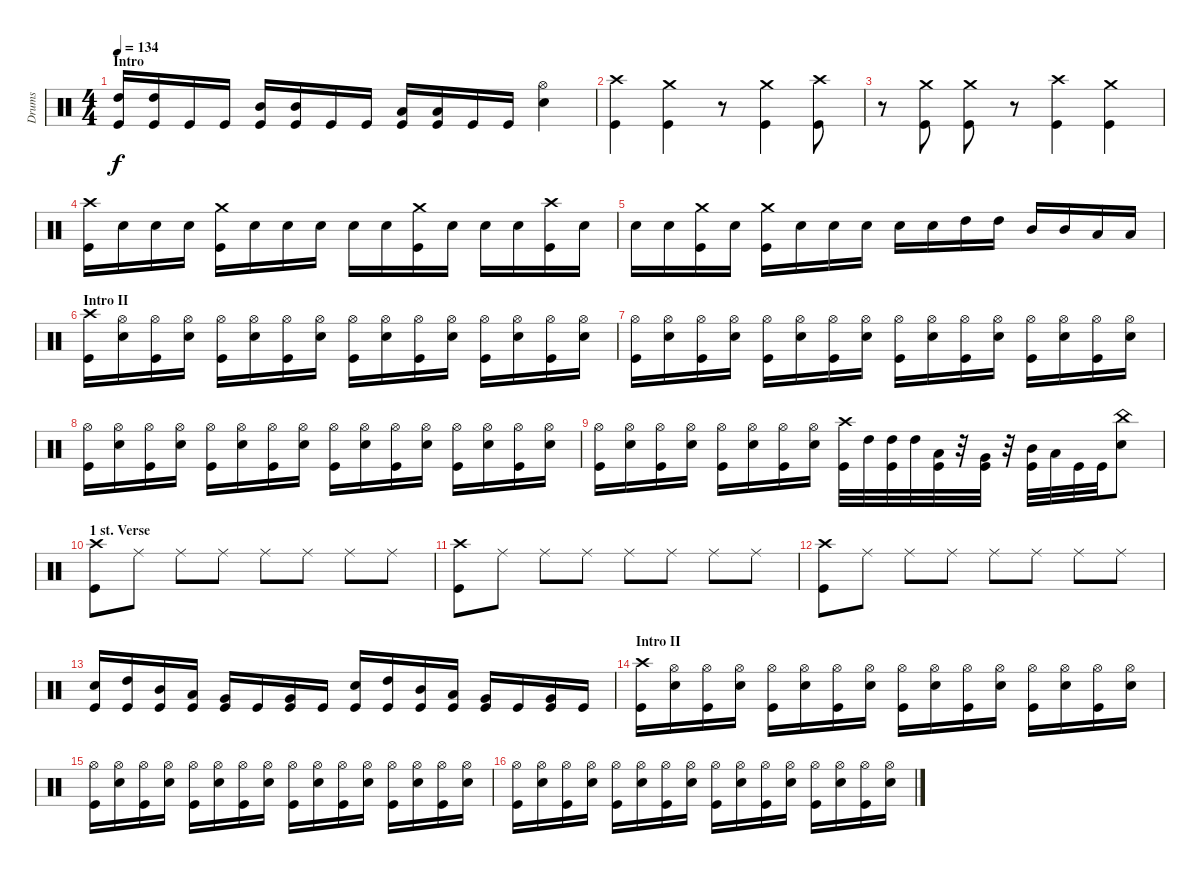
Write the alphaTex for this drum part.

\track ("Drums" "Drums") {instrument percussion}
\staff {score}
\articulation defaults
\ts (4 4)
\section ("" "Intro")
\tempo 134
\clef neutral
\ks c
("High Tom (hit)" "Kick (hit)").16{dy f} ("High Tom (hit)" "Kick (hit)").16 "Kick (hit)".16 "Kick (hit)".16 ("Mid Tom (hit)" "Kick (hit)").16 ("Mid Tom (hit)" "Kick (hit)").16 "Kick (hit)".16 "Kick (hit)".16 ("Low Tom (hit)" "Kick (hit)").16 ("Low Tom (hit)" "Kick (hit)").16 "Kick (hit)".16 "Kick (hit)".16 ("Hi-Hat (open)" "Electric Snare (hit)").4 |
("Crash high (hit)" "Kick (hit)").4 ("Crash medium (hit)" "Kick (hit)").4 r.8 ("Crash medium (hit)" "Kick (hit)").4 ("Crash high (hit)" "Kick (hit)").8 |
r.8 ("Crash medium (hit)" "Kick (hit)").8 ("Crash medium (hit)" "Kick (hit)").8 r.8 ("Crash high (hit)" "Kick (hit)").4 ("Crash medium (hit)" "Kick (hit)").4 |
("Crash high (hit)" "Kick (hit)").16 "Electric Snare (hit)".16 "Electric Snare (hit)".16 "Electric Snare (hit)".16 ("Crash medium (hit)" "Kick (hit)").16 "Electric Snare (hit)".16 "Electric Snare (hit)".16 "Electric Snare (hit)".16 "Electric Snare (hit)".16 "Electric Snare (hit)".16 ("Crash medium (hit)" "Kick (hit)").16 "Electric Snare (hit)".16 "Electric Snare (hit)".16 "Electric Snare (hit)".16 ("Crash high (hit)" "Kick (hit)").16 "Electric Snare (hit)".16 |
"Electric Snare (hit)".16 "Electric Snare (hit)".16 ("Crash medium (hit)" "Kick (hit)").16 "Electric Snare (hit)".16 ("Crash medium (hit)" "Kick (hit)").16 "Electric Snare (hit)".16 "Electric Snare (hit)".16 "Electric Snare (hit)".16 "Electric Snare (hit)".16 "Electric Snare (hit)".16 "High Tom (hit)".16 "High Tom (hit)".16 "Mid Tom (hit)".16 "Mid Tom (hit)".16 "Low Tom (hit)".16 "Low Tom (hit)".16 |
\section ("" "Intro II")
("Crash high (hit)" "Kick (hit)").16 ("Hi-Hat (open)" "Electric Snare (hit)").16 ("Hi-Hat (open)" "Kick (hit)").16 ("Hi-Hat (open)" "Electric Snare (hit)").16 ("Hi-Hat (open)" "Kick (hit)").16 ("Hi-Hat (open)" "Electric Snare (hit)").16 ("Hi-Hat (open)" "Kick (hit)").16 ("Hi-Hat (open)" "Electric Snare (hit)").16 ("Hi-Hat (open)" "Kick (hit)").16 ("Hi-Hat (open)" "Electric Snare (hit)").16 ("Hi-Hat (open)" "Kick (hit)").16 ("Hi-Hat (open)" "Electric Snare (hit)").16 ("Hi-Hat (open)" "Kick (hit)").16 ("Hi-Hat (open)" "Electric Snare (hit)").16 ("Hi-Hat (open)" "Kick (hit)").16 ("Hi-Hat (open)" "Electric Snare (hit)").16 |
("Hi-Hat (open)" "Kick (hit)").16 ("Hi-Hat (open)" "Electric Snare (hit)").16 ("Hi-Hat (open)" "Kick (hit)").16 ("Hi-Hat (open)" "Electric Snare (hit)").16 ("Hi-Hat (open)" "Kick (hit)").16 ("Hi-Hat (open)" "Electric Snare (hit)").16 ("Hi-Hat (open)" "Kick (hit)").16 ("Hi-Hat (open)" "Electric Snare (hit)").16 ("Hi-Hat (open)" "Kick (hit)").16 ("Hi-Hat (open)" "Electric Snare (hit)").16 ("Hi-Hat (open)" "Kick (hit)").16 ("Hi-Hat (open)" "Electric Snare (hit)").16 ("Hi-Hat (open)" "Kick (hit)").16 ("Hi-Hat (open)" "Electric Snare (hit)").16 ("Hi-Hat (open)" "Kick (hit)").16 ("Hi-Hat (open)" "Electric Snare (hit)").16 |
("Hi-Hat (open)" "Kick (hit)").16 ("Hi-Hat (open)" "Electric Snare (hit)").16 ("Hi-Hat (open)" "Kick (hit)").16 ("Hi-Hat (open)" "Electric Snare (hit)").16 ("Hi-Hat (open)" "Kick (hit)").16 ("Hi-Hat (open)" "Electric Snare (hit)").16 ("Hi-Hat (open)" "Kick (hit)").16 ("Hi-Hat (open)" "Electric Snare (hit)").16 ("Hi-Hat (open)" "Kick (hit)").16 ("Hi-Hat (open)" "Electric Snare (hit)").16 ("Hi-Hat (open)" "Kick (hit)").16 ("Hi-Hat (open)" "Electric Snare (hit)").16 ("Hi-Hat (open)" "Kick (hit)").16 ("Hi-Hat (open)" "Electric Snare (hit)").16 ("Hi-Hat (open)" "Kick (hit)").16 ("Hi-Hat (open)" "Electric Snare (hit)").16 |
("Hi-Hat (open)" "Kick (hit)").16 ("Hi-Hat (open)" "Electric Snare (hit)").16 ("Hi-Hat (open)" "Kick (hit)").16 ("Hi-Hat (open)" "Electric Snare (hit)").16 ("Hi-Hat (open)" "Kick (hit)").16 ("Hi-Hat (open)" "Electric Snare (hit)").16 ("Hi-Hat (open)" "Kick (hit)").16 ("Hi-Hat (open)" "Electric Snare (hit)").16 ("Crash high (hit)" "Kick (hit)").32 "High Tom (hit)".32 ("High Tom (hit)" "Kick (hit)").32 "High Tom (hit)".32 ("Low Tom (hit)" "Kick (hit)").32 r.32 ("Very Low Tom (hit)" "Kick (hit)").32 r.32 ("Mid Tom (hit)" "Kick (hit)").32 "Low Tom (hit)".32 "Kick (hit)".32 "Kick (hit)".32 ("China (hit)" "Electric Snare (hit)").8 |
\section ("" "1 st. Verse")
("Crash high (hit)" "Kick (hit)").8 "Ride (middle)".8 "Ride (middle)".8 "Ride (middle)".8 "Ride (middle)".8 "Ride (middle)".8 "Ride (middle)".8 "Ride (middle)".8 |
("Crash high (hit)" "Kick (hit)").8 "Ride (middle)".8 "Ride (middle)".8 "Ride (middle)".8 "Ride (middle)".8 "Ride (middle)".8 "Ride (middle)".8 "Ride (middle)".8 |
("Crash high (hit)" "Kick (hit)").8 "Ride (middle)".8 "Ride (middle)".8 "Ride (middle)".8 "Ride (middle)".8 "Ride (middle)".8 "Ride (middle)".8 "Ride (middle)".8 |
("Electric Snare (hit)" "Kick (hit)").16 ("High Tom (hit)" "Kick (hit)").16 ("Mid Tom (hit)" "Kick (hit)").16 ("Low Tom (hit)" "Kick (hit)").16 ("Very Low Tom (hit)" "Kick (hit)").16 "Kick (hit)".16 ("Very Low Tom (hit)" "Kick (hit)").16 "Kick (hit)".16 ("Electric Snare (hit)" "Kick (hit)").16 ("High Tom (hit)" "Kick (hit)").16 ("Mid Tom (hit)" "Kick (hit)").16 ("Low Tom (hit)" "Kick (hit)").16 ("Very Low Tom (hit)" "Kick (hit)").16 "Kick (hit)".16 ("Very Low Tom (hit)" "Kick (hit)").16 "Kick (hit)".16 |
\section ("" "Intro II")
("Crash high (hit)" "Kick (hit)").16 ("Hi-Hat (open)" "Electric Snare (hit)").16 ("Hi-Hat (open)" "Kick (hit)").16 ("Hi-Hat (open)" "Electric Snare (hit)").16 ("Hi-Hat (open)" "Kick (hit)").16 ("Hi-Hat (open)" "Electric Snare (hit)").16 ("Hi-Hat (open)" "Kick (hit)").16 ("Hi-Hat (open)" "Electric Snare (hit)").16 ("Hi-Hat (open)" "Kick (hit)").16 ("Hi-Hat (open)" "Electric Snare (hit)").16 ("Hi-Hat (open)" "Kick (hit)").16 ("Hi-Hat (open)" "Electric Snare (hit)").16 ("Hi-Hat (open)" "Kick (hit)").16 ("Hi-Hat (open)" "Electric Snare (hit)").16 ("Hi-Hat (open)" "Kick (hit)").16 ("Hi-Hat (open)" "Electric Snare (hit)").16 |
("Hi-Hat (open)" "Kick (hit)").16 ("Hi-Hat (open)" "Electric Snare (hit)").16 ("Hi-Hat (open)" "Kick (hit)").16 ("Hi-Hat (open)" "Electric Snare (hit)").16 ("Hi-Hat (open)" "Kick (hit)").16 ("Hi-Hat (open)" "Electric Snare (hit)").16 ("Hi-Hat (open)" "Kick (hit)").16 ("Hi-Hat (open)" "Electric Snare (hit)").16 ("Hi-Hat (open)" "Kick (hit)").16 ("Hi-Hat (open)" "Electric Snare (hit)").16 ("Hi-Hat (open)" "Kick (hit)").16 ("Hi-Hat (open)" "Electric Snare (hit)").16 ("Hi-Hat (open)" "Kick (hit)").16 ("Hi-Hat (open)" "Electric Snare (hit)").16 ("Hi-Hat (open)" "Kick (hit)").16 ("Hi-Hat (open)" "Electric Snare (hit)").16 |
("Hi-Hat (open)" "Kick (hit)").16 ("Hi-Hat (open)" "Electric Snare (hit)").16 ("Hi-Hat (open)" "Kick (hit)").16 ("Hi-Hat (open)" "Electric Snare (hit)").16 ("Hi-Hat (open)" "Kick (hit)").16 ("Hi-Hat (open)" "Electric Snare (hit)").16 ("Hi-Hat (open)" "Kick (hit)").16 ("Hi-Hat (open)" "Electric Snare (hit)").16 ("Hi-Hat (open)" "Kick (hit)").16 ("Hi-Hat (open)" "Electric Snare (hit)").16 ("Hi-Hat (open)" "Kick (hit)").16 ("Hi-Hat (open)" "Electric Snare (hit)").16 ("Hi-Hat (open)" "Kick (hit)").16 ("Hi-Hat (open)" "Electric Snare (hit)").16 ("Hi-Hat (open)" "Kick (hit)").16 ("Hi-Hat (open)" "Electric Snare (hit)").16
